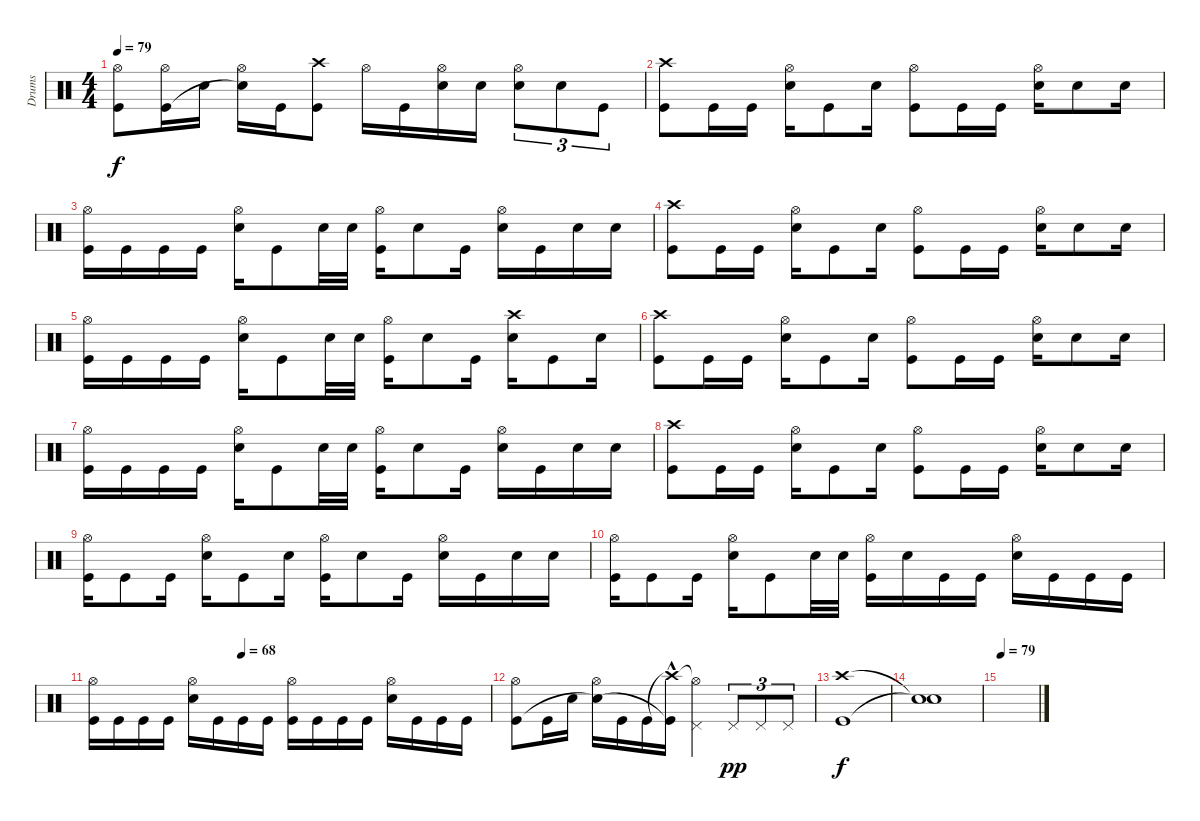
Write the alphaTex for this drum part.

\track ("Drums" "Drums") {instrument percussion}
\staff {score}
\articulation defaults
\ts (4 4)
\tempo 79
\clef neutral
\ks c
("Hi-Hat (open)" "Kick (hit)").8{dy f} ("Hi-Hat (open)" "Kick (hit)").16 "Electric Snare (hit)".16 ("Hi-Hat (open)" "Snare (hit)"{t}).16 "Kick (hit)".16 ("Crash high (hit)" "Kick (hit)").8 "Hi-Hat (open)".16 "Kick (hit)".16 ("Hi-Hat (open)" "Electric Snare (hit)").16 "Electric Snare (hit)".16 ("Hi-Hat (open)" "Electric Snare (hit)").8{tu (3 2)} "Electric Snare (hit)".8{tu (3 2)} "Kick (hit)".8{tu (3 2)} |
("Crash high (hit)" "Kick (hit)").8 "Kick (hit)".16 "Kick (hit)".16 ("Hi-Hat (open)" "Electric Snare (hit)").16 "Kick (hit)".8 "Electric Snare (hit)".16 ("Hi-Hat (open)" "Kick (hit)").8 "Kick (hit)".16 "Kick (hit)".16 ("Hi-Hat (open)" "Electric Snare (hit)").16 "Electric Snare (hit)".8 "Electric Snare (hit)".16 |
("Hi-Hat (open)" "Kick (hit)").16 "Kick (hit)".16 "Kick (hit)".16 "Kick (hit)".16 ("Hi-Hat (open)" "Electric Snare (hit)").16 "Kick (hit)".8 "Electric Snare (hit)".32 "Electric Snare (hit)".32 ("Hi-Hat (open)" "Kick (hit)").16 "Electric Snare (hit)".8 "Kick (hit)".16 ("Hi-Hat (open)" "Electric Snare (hit)").16 "Kick (hit)".16 "Electric Snare (hit)".16 "Electric Snare (hit)".16 |
("Crash high (hit)" "Kick (hit)").8 "Kick (hit)".16 "Kick (hit)".16 ("Hi-Hat (open)" "Electric Snare (hit)").16 "Kick (hit)".8 "Electric Snare (hit)".16 ("Hi-Hat (open)" "Kick (hit)").8 "Kick (hit)".16 "Kick (hit)".16 ("Hi-Hat (open)" "Electric Snare (hit)").16 "Electric Snare (hit)".8 "Electric Snare (hit)".16 |
("Hi-Hat (open)" "Kick (hit)").16 "Kick (hit)".16 "Kick (hit)".16 "Kick (hit)".16 ("Hi-Hat (open)" "Electric Snare (hit)").16 "Kick (hit)".8 "Electric Snare (hit)".32 "Electric Snare (hit)".32 ("Hi-Hat (open)" "Kick (hit)").16 "Electric Snare (hit)".8 "Kick (hit)".16 ("Crash high (hit)" "Electric Snare (hit)").16 "Kick (hit)".8 "Electric Snare (hit)".16 |
("Crash high (hit)" "Kick (hit)").8 "Kick (hit)".16 "Kick (hit)".16 ("Hi-Hat (open)" "Electric Snare (hit)").16 "Kick (hit)".8 "Electric Snare (hit)".16 ("Hi-Hat (open)" "Kick (hit)").8 "Kick (hit)".16 "Kick (hit)".16 ("Hi-Hat (open)" "Electric Snare (hit)").16 "Electric Snare (hit)".8 "Electric Snare (hit)".16 |
("Hi-Hat (open)" "Kick (hit)").16 "Kick (hit)".16 "Kick (hit)".16 "Kick (hit)".16 ("Hi-Hat (open)" "Electric Snare (hit)").16 "Kick (hit)".8 "Electric Snare (hit)".32 "Electric Snare (hit)".32 ("Hi-Hat (open)" "Kick (hit)").16 "Electric Snare (hit)".8 "Kick (hit)".16 ("Hi-Hat (open)" "Electric Snare (hit)").16 "Kick (hit)".16 "Electric Snare (hit)".16 "Electric Snare (hit)".16 |
("Crash high (hit)" "Kick (hit)").8 "Kick (hit)".16 "Kick (hit)".16 ("Hi-Hat (open)" "Electric Snare (hit)").16 "Kick (hit)".8 "Electric Snare (hit)".16 ("Hi-Hat (open)" "Kick (hit)").8 "Kick (hit)".16 "Kick (hit)".16 ("Hi-Hat (open)" "Electric Snare (hit)").16 "Electric Snare (hit)".8 "Electric Snare (hit)".16 |
("Hi-Hat (open)" "Kick (hit)").16 "Kick (hit)".8 "Kick (hit)".16 ("Hi-Hat (open)" "Electric Snare (hit)").16 "Kick (hit)".8 "Electric Snare (hit)".16 ("Hi-Hat (open)" "Kick (hit)").16 "Electric Snare (hit)".8 "Kick (hit)".16 ("Hi-Hat (open)" "Electric Snare (hit)").16 "Kick (hit)".16 "Electric Snare (hit)".16 "Electric Snare (hit)".16 |
("Hi-Hat (open)" "Kick (hit)").16 "Kick (hit)".8 "Kick (hit)".16 ("Hi-Hat (open)" "Electric Snare (hit)").16 "Kick (hit)".8 "Electric Snare (hit)".32 "Electric Snare (hit)".32 ("Hi-Hat (open)" "Kick (hit)").16 "Electric Snare (hit)".16 "Kick (hit)".16 "Kick (hit)".16 ("Hi-Hat (open)" "Electric Snare (hit)").16 "Kick (hit)".16 "Kick (hit)".16 "Kick (hit)".16 |
\tempo (68 0.375)
("Hi-Hat (open)" "Kick (hit)").16 "Kick (hit)".16 "Kick (hit)".16 "Kick (hit)".16 ("Hi-Hat (open)" "Electric Snare (hit)").16 "Kick (hit)".16 "Kick (hit)".16 "Kick (hit)".16 ("Hi-Hat (open)" "Kick (hit)").16 "Kick (hit)".16 "Kick (hit)".16 "Kick (hit)".16 ("Hi-Hat (open)" "Electric Snare (hit)").16 "Kick (hit)".16 "Kick (hit)".16 "Kick (hit)".16 |
("Hi-Hat (open)" "Kick (hit)").8 "Kick (hit)".16 "Electric Snare (hit)".16 ("Hi-Hat (open)" "Snare (hit)"{t}).16 "Kick (hit)".16 "Kick (hit)".16 ("Crash high (hit)"{t} "Kick (hit)"{hac t}).16 ("Hi-Hat (open)"{t} "Pedal Hi-Hat (hit)").4 "Pedal Hi-Hat (hit)".8{tu (3 2) dy pp} "Pedal Hi-Hat (hit)".8{tu (3 2)} "Pedal Hi-Hat (hit)".8{tu (3 2)} |
("Kick (hit)" "Crash high (hit)").1{dy f} |
("Snare (hit)"{t} "Snare (hit)"{t}).1 |
\tempo 79
